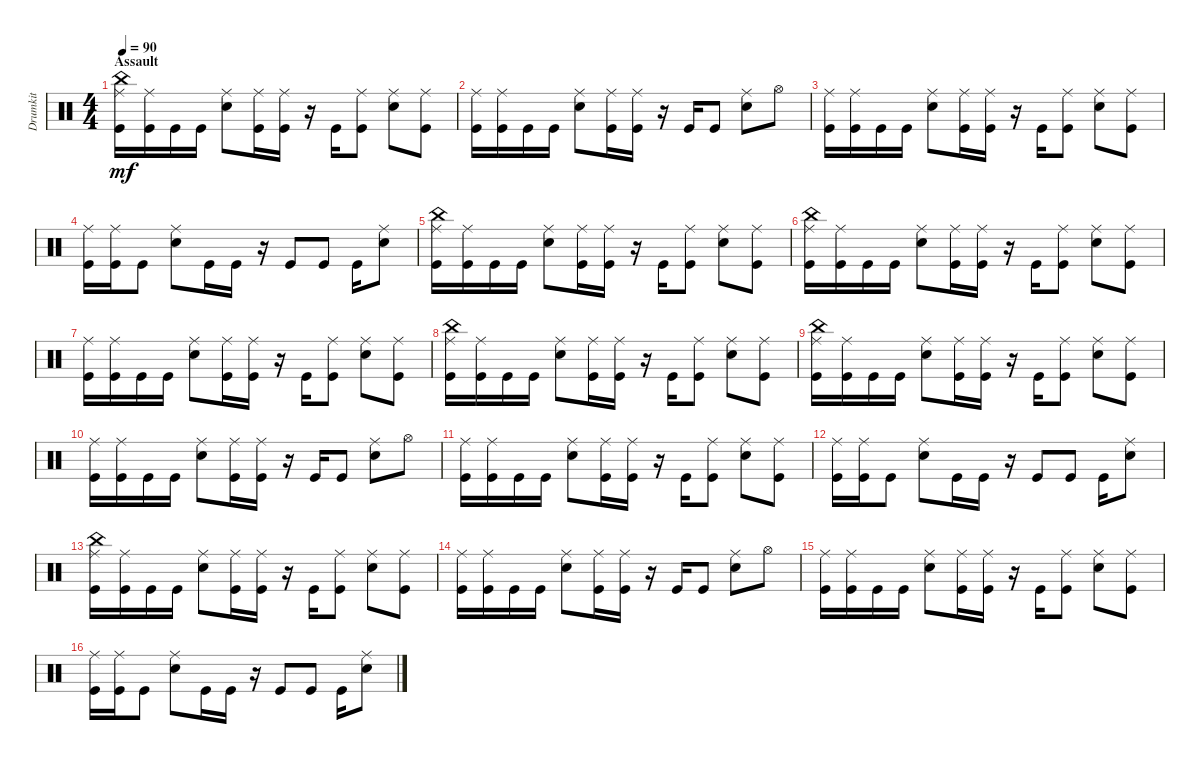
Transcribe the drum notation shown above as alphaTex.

\track ("Drumkit" "Drumkit") {instrument percussion}
\staff {score}
\articulation defaults
\ts (4 4)
\section ("" "Assault")
\tempo 90
\clef neutral
\ks c
("Kick (hit)" "Ride (middle)" "China (hit)").16{dy mf} ("Kick (hit)" "Ride (middle)").16 "Kick (hit)".16 "Kick (hit)".16 ("Snare (hit) 2" "Ride (middle)").8 ("Kick (hit)" "Ride (middle)").16 ("Kick (hit)" "Ride (middle)").16 r.16 "Kick (hit)".16 ("Kick (hit)" "Ride (middle)").8 ("Snare (hit) 2" "Ride (middle)").8 ("Kick (hit)" "Ride (middle)").8 |
("Kick (hit)" "Ride (middle)").16 ("Kick (hit)" "Ride (middle)").16 "Kick (hit)".16 "Kick (hit)".16 ("Snare (hit) 2" "Ride (middle)").8 ("Kick (hit)" "Ride (middle)").16 ("Kick (hit)" "Ride (middle)").16 r.16 "Kick (hit)".16 "Kick (hit)".8 ("Snare (hit) 2" "Ride (middle)").8 "Hi-Hat (open)".8 |
("Kick (hit)" "Ride (middle)").16 ("Kick (hit)" "Ride (middle)").16 "Kick (hit)".16 "Kick (hit)".16 ("Snare (hit) 2" "Ride (middle)").8 ("Kick (hit)" "Ride (middle)").16 ("Kick (hit)" "Ride (middle)").16 r.16 "Kick (hit)".16 ("Kick (hit)" "Ride (middle)").8 ("Snare (hit) 2" "Ride (middle)").8 ("Kick (hit)" "Ride (middle)").8 |
("Kick (hit)" "Ride (middle)").16 ("Kick (hit)" "Ride (middle)").16 "Kick (hit)".8 ("Snare (hit) 2" "Ride (middle)").8 "Kick (hit)".16 "Kick (hit)".16 r.16 "Kick (hit)".8 "Kick (hit)".8 "Kick (hit)".16 ("Snare (hit) 2" "Ride (middle)").8 |
("Kick (hit)" "Ride (middle)" "China (hit)").16 ("Kick (hit)" "Ride (middle)").16 "Kick (hit)".16 "Kick (hit)".16 ("Snare (hit) 2" "Ride (middle)").8 ("Kick (hit)" "Ride (middle)").16 ("Kick (hit)" "Ride (middle)").16 r.16 "Kick (hit)".16 ("Kick (hit)" "Ride (middle)").8 ("Snare (hit) 2" "Ride (middle)").8 ("Kick (hit)" "Ride (middle)").8 |
("Kick (hit)" "Ride (middle)" "China (hit)").16 ("Kick (hit)" "Ride (middle)").16 "Kick (hit)".16 "Kick (hit)".16 ("Snare (hit) 2" "Ride (middle)").8 ("Kick (hit)" "Ride (middle)").16 ("Kick (hit)" "Ride (middle)").16 r.16 "Kick (hit)".16 ("Kick (hit)" "Ride (middle)").8 ("Snare (hit) 2" "Ride (middle)").8 ("Kick (hit)" "Ride (middle)").8 |
("Kick (hit)" "Ride (middle)").16 ("Kick (hit)" "Ride (middle)").16 "Kick (hit)".16 "Kick (hit)".16 ("Snare (hit) 2" "Ride (middle)").8 ("Kick (hit)" "Ride (middle)").16 ("Kick (hit)" "Ride (middle)").16 r.16 "Kick (hit)".16 ("Kick (hit)" "Ride (middle)").8 ("Snare (hit) 2" "Ride (middle)").8 ("Kick (hit)" "Ride (middle)").8 |
("Kick (hit)" "Ride (middle)" "China (hit)").16 ("Kick (hit)" "Ride (middle)").16 "Kick (hit)".16 "Kick (hit)".16 ("Snare (hit) 2" "Ride (middle)").8 ("Kick (hit)" "Ride (middle)").16 ("Kick (hit)" "Ride (middle)").16 r.16 "Kick (hit)".16 ("Kick (hit)" "Ride (middle)").8 ("Snare (hit) 2" "Ride (middle)").8 ("Kick (hit)" "Ride (middle)").8 |
("Kick (hit)" "Ride (middle)" "China (hit)").16 ("Kick (hit)" "Ride (middle)").16 "Kick (hit)".16 "Kick (hit)".16 ("Snare (hit) 2" "Ride (middle)").8 ("Kick (hit)" "Ride (middle)").16 ("Kick (hit)" "Ride (middle)").16 r.16 "Kick (hit)".16 ("Kick (hit)" "Ride (middle)").8 ("Snare (hit) 2" "Ride (middle)").8 ("Kick (hit)" "Ride (middle)").8 |
("Kick (hit)" "Ride (middle)").16 ("Kick (hit)" "Ride (middle)").16 "Kick (hit)".16 "Kick (hit)".16 ("Snare (hit) 2" "Ride (middle)").8 ("Kick (hit)" "Ride (middle)").16 ("Kick (hit)" "Ride (middle)").16 r.16 "Kick (hit)".16 "Kick (hit)".8 ("Snare (hit) 2" "Ride (middle)").8 "Hi-Hat (open)".8 |
("Kick (hit)" "Ride (middle)").16 ("Kick (hit)" "Ride (middle)").16 "Kick (hit)".16 "Kick (hit)".16 ("Snare (hit) 2" "Ride (middle)").8 ("Kick (hit)" "Ride (middle)").16 ("Kick (hit)" "Ride (middle)").16 r.16 "Kick (hit)".16 ("Kick (hit)" "Ride (middle)").8 ("Snare (hit) 2" "Ride (middle)").8 ("Kick (hit)" "Ride (middle)").8 |
("Kick (hit)" "Ride (middle)").16 ("Kick (hit)" "Ride (middle)").16 "Kick (hit)".8 ("Snare (hit) 2" "Ride (middle)").8 "Kick (hit)".16 "Kick (hit)".16 r.16 "Kick (hit)".8 "Kick (hit)".8 "Kick (hit)".16 ("Snare (hit) 2" "Ride (middle)").8 |
("Kick (hit)" "Ride (middle)" "China (hit)").16 ("Kick (hit)" "Ride (middle)").16 "Kick (hit)".16 "Kick (hit)".16 ("Snare (hit) 2" "Ride (middle)").8 ("Kick (hit)" "Ride (middle)").16 ("Kick (hit)" "Ride (middle)").16 r.16 "Kick (hit)".16 ("Kick (hit)" "Ride (middle)").8 ("Snare (hit) 2" "Ride (middle)").8 ("Kick (hit)" "Ride (middle)").8 |
("Kick (hit)" "Ride (middle)").16 ("Kick (hit)" "Ride (middle)").16 "Kick (hit)".16 "Kick (hit)".16 ("Snare (hit) 2" "Ride (middle)").8 ("Kick (hit)" "Ride (middle)").16 ("Kick (hit)" "Ride (middle)").16 r.16 "Kick (hit)".16 "Kick (hit)".8 ("Snare (hit) 2" "Ride (middle)").8 "Hi-Hat (open)".8 |
("Kick (hit)" "Ride (middle)").16 ("Kick (hit)" "Ride (middle)").16 "Kick (hit)".16 "Kick (hit)".16 ("Snare (hit) 2" "Ride (middle)").8 ("Kick (hit)" "Ride (middle)").16 ("Kick (hit)" "Ride (middle)").16 r.16 "Kick (hit)".16 ("Kick (hit)" "Ride (middle)").8 ("Snare (hit) 2" "Ride (middle)").8 ("Kick (hit)" "Ride (middle)").8 |
("Kick (hit)" "Ride (middle)").16 ("Kick (hit)" "Ride (middle)").16 "Kick (hit)".8 ("Snare (hit) 2" "Ride (middle)").8 "Kick (hit)".16 "Kick (hit)".16 r.16 "Kick (hit)".8 "Kick (hit)".8 "Kick (hit)".16 ("Snare (hit) 2" "Ride (middle)").8
